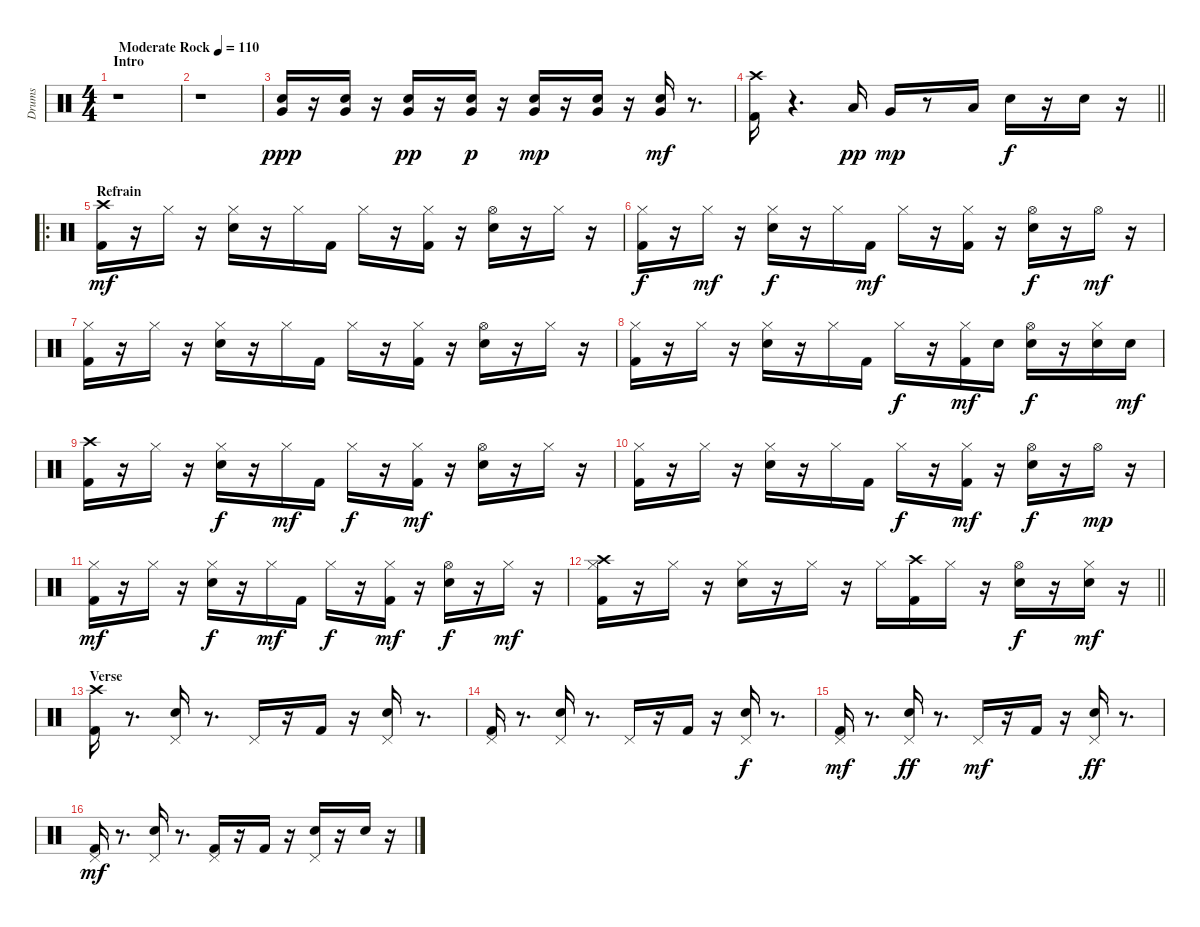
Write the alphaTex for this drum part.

\track ("Drums" "Drums") {instrument percussion}
\staff {score}
\articulation defaults
\ts (4 4)
\section ("" "Intro")
\tempo (110 "Moderate Rock")
\clef neutral
\ks c
r.1{dy ppp} |
r.1 |
("Snare (hit) 2" "Very Low Tom (hit)").16 r.16 ("Snare (hit) 2" "Very Low Tom (hit)").16 r.16 ("Snare (hit) 2" "Very Low Tom (hit)").16{dy pp} r.16 ("Snare (hit) 2" "Very Low Tom (hit)").16{dy p} r.16 ("Snare (hit) 2" "Very Low Tom (hit)").16{dy mp} r.16 ("Snare (hit) 2" "Very Low Tom (hit)").16 r.16 ("Snare (hit) 2" "Very Low Tom (hit)").16{dy mf} r.8{d} |
\barLineRight lightlight
("Kick (hit) 2" "Crash high (hit)").16 r.4{d} "Low Tom (hit)".16{dy pp} "Very Low Tom (hit)".16{dy mp} r.8 "Low Tom (hit)".16 "Snare (hit) 2".16{dy f} r.16 "Snare (hit) 2".16 r.16 |
\ro
\section ("" "Refrain")
("Kick (hit) 2" "Crash high (hit)").16{dy mf} r.16 "Hi-Hat (closed)".16 r.16 ("Snare (hit) 2" "Hi-Hat (closed)").16 r.16 "Hi-Hat (closed)".16 "Kick (hit) 2".16 "Hi-Hat (closed)".16 r.16 ("Kick (hit) 2" "Hi-Hat (closed)").16 r.16 ("Snare (hit) 2" "Hi-Hat (open)").16 r.16 "Hi-Hat (closed)".16 r.16 |
("Kick (hit) 2" "Hi-Hat (closed)").16{dy f} r.16 "Hi-Hat (closed)".16{dy mf} r.16 ("Snare (hit) 2" "Hi-Hat (closed)").16{dy f} r.16 "Hi-Hat (closed)".16 "Kick (hit) 2".16{dy mf} "Hi-Hat (closed)".16 r.16 ("Kick (hit) 2" "Hi-Hat (closed)").16 r.16 ("Snare (hit) 2" "Hi-Hat (open)").16{dy f} r.16 "Hi-Hat (open)".16{dy mf} r.16 |
("Kick (hit) 2" "Hi-Hat (closed)").16 r.16 "Hi-Hat (closed)".16 r.16 ("Snare (hit) 2" "Hi-Hat (closed)").16 r.16 "Hi-Hat (closed)".16 "Kick (hit) 2".16 "Hi-Hat (closed)".16 r.16 ("Kick (hit) 2" "Hi-Hat (closed)").16 r.16 ("Snare (hit) 2" "Hi-Hat (open)").16 r.16 "Hi-Hat (closed)".16 r.16 |
("Kick (hit) 2" "Hi-Hat (closed)").16 r.16 "Hi-Hat (closed)".16 r.16 ("Snare (hit) 2" "Hi-Hat (closed)").16 r.16 "Hi-Hat (closed)".16 "Kick (hit) 2".16 "Hi-Hat (closed)".16{dy f} r.16 ("Kick (hit) 2" "Hi-Hat (closed)").16{dy mf} "Snare (hit) 2".16 ("Snare (hit) 2" "Hi-Hat (open)").16{dy f} r.16 ("Snare (hit) 2" "Hi-Hat (closed)").16 "Snare (hit) 2".16{dy mf} |
("Kick (hit) 2" "Crash high (hit)").16 r.16 "Hi-Hat (closed)".16 r.16 ("Snare (hit) 2" "Hi-Hat (closed)").16{dy f} r.16 "Hi-Hat (closed)".16{dy mf} "Kick (hit) 2".16 "Hi-Hat (closed)".16{dy f} r.16 ("Kick (hit) 2" "Hi-Hat (closed)").16{dy mf} r.16 ("Snare (hit) 2" "Hi-Hat (open)").16 r.16 "Hi-Hat (closed)".16 r.16 |
("Kick (hit) 2" "Hi-Hat (closed)").16 r.16 "Hi-Hat (closed)".16 r.16 ("Snare (hit) 2" "Hi-Hat (closed)").16 r.16 "Hi-Hat (closed)".16 "Kick (hit) 2".16 "Hi-Hat (closed)".16{dy f} r.16 ("Kick (hit) 2" "Hi-Hat (closed)").16{dy mf} r.16 ("Snare (hit) 2" "Hi-Hat (open)").16{dy f} r.16 "Hi-Hat (open)".16{dy mp} r.16 |
("Kick (hit) 2" "Hi-Hat (closed)").16{dy mf} r.16 "Hi-Hat (closed)".16 r.16 ("Snare (hit) 2" "Hi-Hat (closed)").16{dy f} r.16 "Hi-Hat (closed)".16{dy mf} "Kick (hit) 2".16 "Hi-Hat (closed)".16{dy f} r.16 ("Kick (hit) 2" "Hi-Hat (closed)").16{dy mf} r.16 ("Snare (hit) 2" "Hi-Hat (open)").16{dy f} r.16 "Hi-Hat (closed)".16{dy mf} r.16 |
\barLineRight lightlight
("Kick (hit) 2" "Hi-Hat (closed)" "Crash high (hit)").16 r.16 "Hi-Hat (closed)".16 r.16 ("Snare (hit) 2" "Hi-Hat (closed)").16 r.16 "Hi-Hat (closed)".16 r.16 "Hi-Hat (closed)".16 ("Kick (hit) 2" "Crash high (hit)").16 "Hi-Hat (closed)".16 r.16 ("Snare (hit) 2" "Hi-Hat (open)").16{dy f} r.16 ("Snare (hit) 2" "Hi-Hat (closed)").16{dy mf} r.16 |
\section ("" "Verse")
("Kick (hit) 2" "Crash high (hit)").16 r.8{d} ("Snare (hit) 2" "Pedal Hi-Hat (hit)").16 r.8{d} "Pedal Hi-Hat (hit)".16 r.16 "Kick (hit) 2".16 r.16 ("Snare (hit) 2" "Pedal Hi-Hat (hit)").16 r.8{d} |
("Kick (hit) 2" "Pedal Hi-Hat (hit)").16 r.8{d} ("Snare (hit) 2" "Pedal Hi-Hat (hit)").16 r.8{d} "Pedal Hi-Hat (hit)".16 r.16 "Kick (hit) 2".16 r.16 ("Snare (hit) 2" "Pedal Hi-Hat (hit)").16{dy f} r.8{d} |
("Kick (hit) 2" "Pedal Hi-Hat (hit)").16{dy mf} r.8{d} ("Snare (hit) 2" "Pedal Hi-Hat (hit)").16{dy ff} r.8{d} "Pedal Hi-Hat (hit)".16{dy mf} r.16 "Kick (hit) 2".16 r.16 ("Snare (hit) 2" "Pedal Hi-Hat (hit)").16{dy ff} r.8{d} |
("Kick (hit) 2" "Pedal Hi-Hat (hit)").16{dy mf} r.8{d} ("Snare (hit) 2" "Pedal Hi-Hat (hit)").16 r.8{d} ("Kick (hit) 2" "Pedal Hi-Hat (hit)").16 r.16 "Kick (hit) 2".16 r.16 ("Snare (hit) 2" "Pedal Hi-Hat (hit)").16 r.16 "Snare (hit) 2".16 r.16
